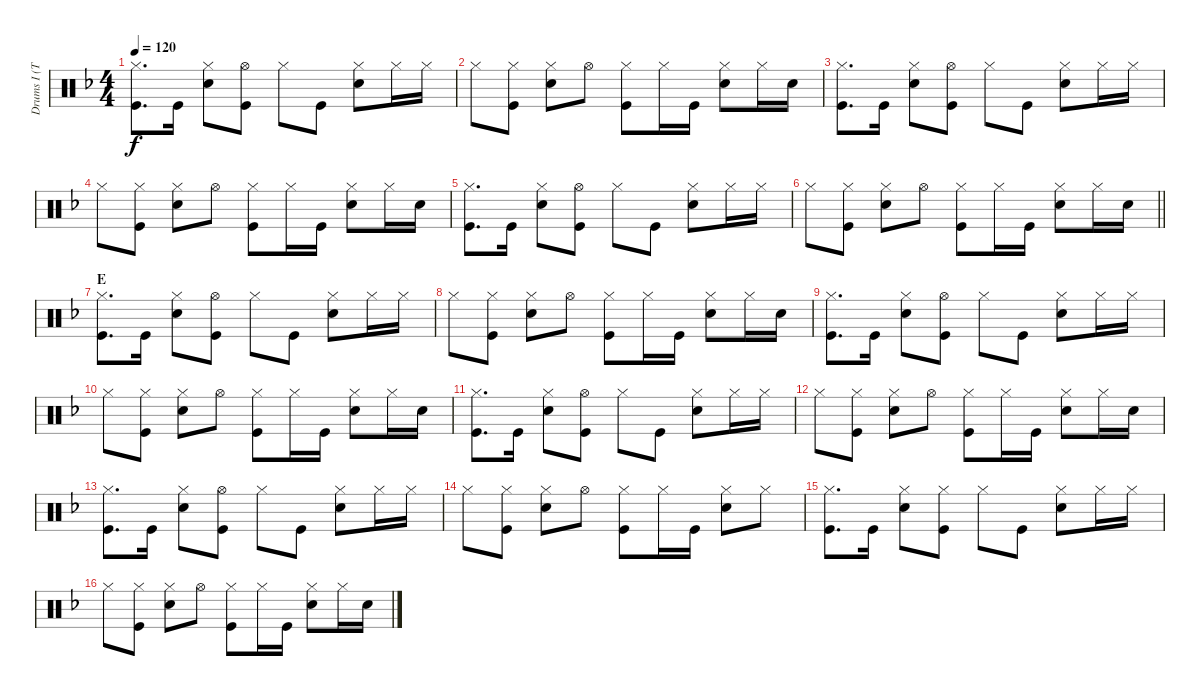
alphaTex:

\track ("Drums I (Tainaka Ritsu)" "Drums I (T") {instrument percussion}
\staff {score}
\articulation defaults
\ts (4 4)
\tempo 120
\clef neutral
\ks f
("Hi-Hat (closed)" "Kick (hit)").8{d dy f} "Kick (hit)".16 ("Hi-Hat (closed)" "Snare (hit) 2").8 ("Hi-Hat (open)" "Kick (hit)").8 "Hi-Hat (closed)".8 "Kick (hit)".8 ("Hi-Hat (closed)" "Snare (hit) 2").8 "Hi-Hat (closed)".16 "Hi-Hat (closed)".16 |
"Hi-Hat (closed)".8 ("Hi-Hat (closed)" "Kick (hit)").8 ("Hi-Hat (closed)" "Snare (hit) 2").8 "Hi-Hat (open)".8 ("Hi-Hat (closed)" "Kick (hit)").8 "Hi-Hat (closed)".16 "Kick (hit)".16 ("Hi-Hat (closed)" "Snare (hit) 2").8 "Hi-Hat (closed)".16 "Snare (hit) 2".16 |
("Hi-Hat (closed)" "Kick (hit)").8{d} "Kick (hit)".16 ("Hi-Hat (closed)" "Snare (hit) 2").8 ("Hi-Hat (open)" "Kick (hit)").8 "Hi-Hat (closed)".8 "Kick (hit)".8 ("Hi-Hat (closed)" "Snare (hit) 2").8 "Hi-Hat (closed)".16 "Hi-Hat (closed)".16 |
"Hi-Hat (closed)".8 ("Hi-Hat (closed)" "Kick (hit)").8 ("Hi-Hat (closed)" "Snare (hit) 2").8 "Hi-Hat (open)".8 ("Hi-Hat (closed)" "Kick (hit)").8 "Hi-Hat (closed)".16 "Kick (hit)".16 ("Hi-Hat (closed)" "Snare (hit) 2").8 "Hi-Hat (closed)".16 "Snare (hit) 2".16 |
("Hi-Hat (closed)" "Kick (hit)").8{d} "Kick (hit)".16 ("Hi-Hat (closed)" "Snare (hit) 2").8 ("Hi-Hat (open)" "Kick (hit)").8 "Hi-Hat (closed)".8 "Kick (hit)".8 ("Hi-Hat (closed)" "Snare (hit) 2").8 "Hi-Hat (closed)".16 "Hi-Hat (closed)".16 |
\barLineRight lightlight "Hi-Hat (closed)".8
("Hi-Hat (closed)" "Kick (hit)").8 ("Hi-Hat (closed)" "Snare (hit) 2").8 "Hi-Hat (open)".8 ("Hi-Hat (closed)" "Kick (hit)").8 "Hi-Hat (closed)".16 "Kick (hit)".16 ("Hi-Hat (closed)" "Snare (hit) 2").8 "Hi-Hat (closed)".16 "Snare (hit) 2".16 |
\section ("" "E")
("Hi-Hat (closed)" "Kick (hit)").8{d} "Kick (hit)".16 ("Hi-Hat (closed)" "Snare (hit) 2").8 ("Hi-Hat (open)" "Kick (hit)").8 "Hi-Hat (closed)".8 "Kick (hit)".8 ("Hi-Hat (closed)" "Snare (hit) 2").8 "Hi-Hat (closed)".16 "Hi-Hat (closed)".16 |
"Hi-Hat (closed)".8 ("Hi-Hat (closed)" "Kick (hit)").8 ("Hi-Hat (closed)" "Snare (hit) 2").8 "Hi-Hat (open)".8 ("Hi-Hat (closed)" "Kick (hit)").8 "Hi-Hat (closed)".16 "Kick (hit)".16 ("Hi-Hat (closed)" "Snare (hit) 2").8 "Hi-Hat (closed)".16 "Snare (hit) 2".16 |
("Hi-Hat (closed)" "Kick (hit)").8{d} "Kick (hit)".16 ("Hi-Hat (closed)" "Snare (hit) 2").8 ("Hi-Hat (open)" "Kick (hit)").8 "Hi-Hat (closed)".8 "Kick (hit)".8 ("Hi-Hat (closed)" "Snare (hit) 2").8 "Hi-Hat (closed)".16 "Hi-Hat (closed)".16 |
"Hi-Hat (closed)".8 ("Hi-Hat (closed)" "Kick (hit)").8 ("Hi-Hat (closed)" "Snare (hit) 2").8 "Hi-Hat (open)".8 ("Hi-Hat (closed)" "Kick (hit)").8 "Hi-Hat (closed)".16 "Kick (hit)".16 ("Hi-Hat (closed)" "Snare (hit) 2").8 "Hi-Hat (closed)".16 "Snare (hit) 2".16 |
("Hi-Hat (closed)" "Kick (hit)").8{d} "Kick (hit)".16 ("Hi-Hat (closed)" "Snare (hit) 2").8 ("Hi-Hat (open)" "Kick (hit)").8 "Hi-Hat (closed)".8 "Kick (hit)".8 ("Hi-Hat (closed)" "Snare (hit) 2").8 "Hi-Hat (closed)".16 "Hi-Hat (closed)".16 |
"Hi-Hat (closed)".8 ("Hi-Hat (closed)" "Kick (hit)").8 ("Hi-Hat (closed)" "Snare (hit) 2").8 "Hi-Hat (open)".8 ("Hi-Hat (closed)" "Kick (hit)").8 "Hi-Hat (closed)".16 "Kick (hit)".16 ("Hi-Hat (closed)" "Snare (hit) 2").8 "Hi-Hat (closed)".16 "Snare (hit) 2".16 |
("Hi-Hat (closed)" "Kick (hit)").8{d} "Kick (hit)".16 ("Hi-Hat (closed)" "Snare (hit) 2").8 ("Hi-Hat (open)" "Kick (hit)").8 "Hi-Hat (closed)".8 "Kick (hit)".8 ("Hi-Hat (closed)" "Snare (hit) 2").8 "Hi-Hat (closed)".16 "Hi-Hat (closed)".16 |
"Hi-Hat (closed)".8 ("Hi-Hat (closed)" "Kick (hit)").8 ("Hi-Hat (closed)" "Snare (hit) 2").8 "Hi-Hat (open)".8 ("Hi-Hat (closed)" "Kick (hit)").8 "Hi-Hat (closed)".16 "Kick (hit)".16 ("Hi-Hat (closed)" "Snare (hit) 2").8 "Hi-Hat (closed)".8 |
("Hi-Hat (closed)" "Kick (hit)").8{d} "Kick (hit)".16 ("Hi-Hat (closed)" "Snare (hit) 2").8 ("Hi-Hat (closed)" "Kick (hit)").8 "Hi-Hat (closed)".8 "Kick (hit)".8 ("Hi-Hat (closed)" "Snare (hit) 2").8 "Hi-Hat (closed)".16 "Hi-Hat (closed)".16 |
"Hi-Hat (closed)".8 ("Hi-Hat (closed)" "Kick (hit)").8 ("Hi-Hat (closed)" "Snare (hit) 2").8 "Hi-Hat (open)".8 ("Hi-Hat (closed)" "Kick (hit)").8 "Hi-Hat (closed)".16 "Kick (hit)".16 ("Hi-Hat (closed)" "Snare (hit) 2").8 "Hi-Hat (closed)".16 "Snare (hit) 2".16
